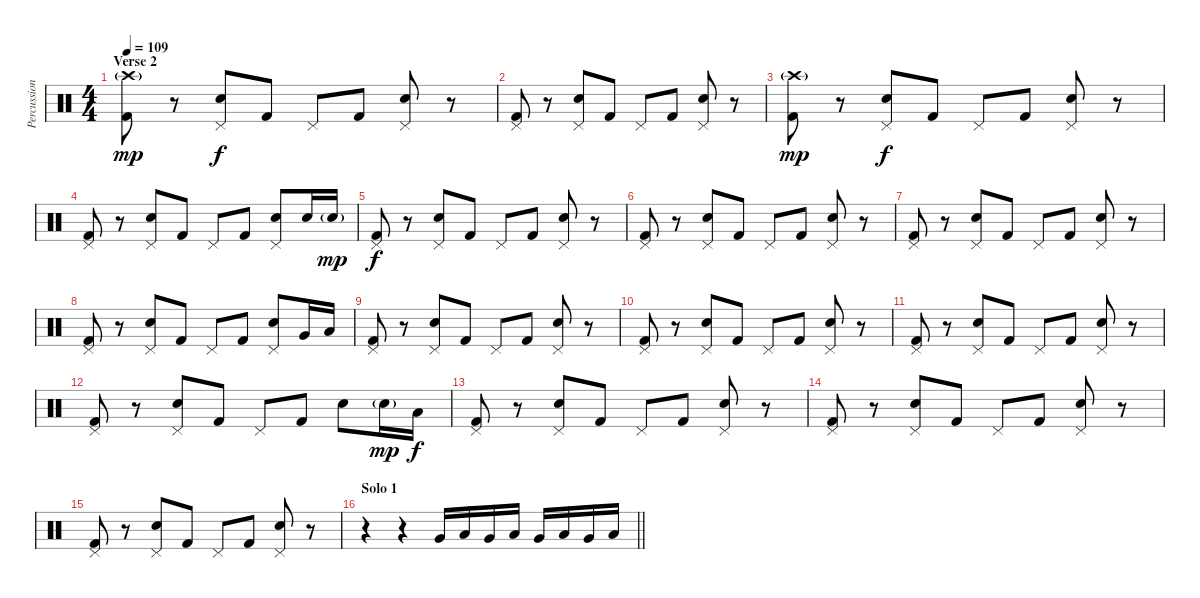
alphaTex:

\track ("Percussion" "Percussion") {instrument percussion}
\staff {score}
\articulation defaults
\ts (4 4)
\section ("" "Verse 2")
\tempo 109
\clef neutral
\ks c
("Crash high (hit)"{g} "Kick (hit) 2").8{dy mp balance 8} r.8 ("Pedal Hi-Hat (hit)" "Snare (hit) 2").8{dy f} "Kick (hit) 2".8 "Pedal Hi-Hat (hit)".8 "Kick (hit) 2".8 ("Pedal Hi-Hat (hit)" "Snare (hit) 2").8 r.8 |
("Pedal Hi-Hat (hit)" "Kick (hit) 2").8 r.8 ("Pedal Hi-Hat (hit)" "Snare (hit) 2").8 "Kick (hit) 2".8 "Pedal Hi-Hat (hit)".8 "Kick (hit) 2".8 ("Pedal Hi-Hat (hit)" "Snare (hit) 2").8 r.8 |
("Crash high (hit)"{g} "Kick (hit) 2").8{dy mp balance 8} r.8 ("Pedal Hi-Hat (hit)" "Snare (hit) 2").8{dy f} "Kick (hit) 2".8 "Pedal Hi-Hat (hit)".8 "Kick (hit) 2".8 ("Pedal Hi-Hat (hit)" "Snare (hit) 2").8 r.8 |
("Pedal Hi-Hat (hit)" "Kick (hit) 2").8 r.8 ("Pedal Hi-Hat (hit)" "Snare (hit) 2").8 "Kick (hit) 2".8 "Pedal Hi-Hat (hit)".8 "Kick (hit) 2".8 ("Pedal Hi-Hat (hit)" "Snare (hit) 2").8 "Snare (hit) 2".16 "Snare (hit) 2"{g}.16{dy mp} |
("Pedal Hi-Hat (hit)" "Kick (hit) 2").8{dy f} r.8 ("Pedal Hi-Hat (hit)" "Snare (hit) 2").8 "Kick (hit) 2".8 "Pedal Hi-Hat (hit)".8 "Kick (hit) 2".8 ("Pedal Hi-Hat (hit)" "Snare (hit) 2").8 r.8 |
("Pedal Hi-Hat (hit)" "Kick (hit) 2").8 r.8 ("Pedal Hi-Hat (hit)" "Snare (hit) 2").8 "Kick (hit) 2".8 "Pedal Hi-Hat (hit)".8 "Kick (hit) 2".8 ("Pedal Hi-Hat (hit)" "Snare (hit) 2").8 r.8 |
("Pedal Hi-Hat (hit)" "Kick (hit) 2").8 r.8 ("Pedal Hi-Hat (hit)" "Snare (hit) 2").8 "Kick (hit) 2".8 "Pedal Hi-Hat (hit)".8 "Kick (hit) 2".8 ("Pedal Hi-Hat (hit)" "Snare (hit) 2").8 r.8 |
("Pedal Hi-Hat (hit)" "Kick (hit) 2").8 r.8 ("Pedal Hi-Hat (hit)" "Snare (hit) 2").8 "Kick (hit) 2".8 "Pedal Hi-Hat (hit)".8 "Kick (hit) 2".8 ("Pedal Hi-Hat (hit)" "Snare (hit) 2").8 "Very Low Tom (hit)".16{balance 0} "Low Floor Tom (hit)".16{balance 16} |
("Pedal Hi-Hat (hit)" "Kick (hit) 2").8{balance 8} r.8 ("Pedal Hi-Hat (hit)" "Snare (hit) 2").8 "Kick (hit) 2".8 "Pedal Hi-Hat (hit)".8 "Kick (hit) 2".8 ("Pedal Hi-Hat (hit)" "Snare (hit) 2").8 r.8 |
("Pedal Hi-Hat (hit)" "Kick (hit) 2").8 r.8 ("Pedal Hi-Hat (hit)" "Snare (hit) 2").8 "Kick (hit) 2".8 "Pedal Hi-Hat (hit)".8 "Kick (hit) 2".8 ("Pedal Hi-Hat (hit)" "Snare (hit) 2").8 r.8 |
("Pedal Hi-Hat (hit)" "Kick (hit) 2").8{balance 8} r.8 ("Pedal Hi-Hat (hit)" "Snare (hit) 2").8 "Kick (hit) 2".8 "Pedal Hi-Hat (hit)".8 "Kick (hit) 2".8 ("Pedal Hi-Hat (hit)" "Snare (hit) 2").8 r.8 |
("Pedal Hi-Hat (hit)" "Kick (hit) 2").8{balance 8} r.8 ("Pedal Hi-Hat (hit)" "Snare (hit) 2").8 "Kick (hit) 2".8 "Pedal Hi-Hat (hit)".8 "Kick (hit) 2".8 "Snare (hit) 2".8 "Snare (hit) 2"{g}.16{dy mp} "Low Floor Tom (hit)".16{dy f balance 16} |
("Pedal Hi-Hat (hit)" "Kick (hit) 2").8{balance 8} r.8 ("Pedal Hi-Hat (hit)" "Snare (hit) 2").8 "Kick (hit) 2".8 "Pedal Hi-Hat (hit)".8 "Kick (hit) 2".8 ("Pedal Hi-Hat (hit)" "Snare (hit) 2").8 r.8 |
("Pedal Hi-Hat (hit)" "Kick (hit) 2").8 r.8 ("Pedal Hi-Hat (hit)" "Snare (hit) 2").8 "Kick (hit) 2".8 "Pedal Hi-Hat (hit)".8 "Kick (hit) 2".8 ("Pedal Hi-Hat (hit)" "Snare (hit) 2").8 r.8 |
("Pedal Hi-Hat (hit)" "Kick (hit) 2").8 r.8 ("Pedal Hi-Hat (hit)" "Snare (hit) 2").8 "Kick (hit) 2".8 "Pedal Hi-Hat (hit)".8 "Kick (hit) 2".8 ("Pedal Hi-Hat (hit)" "Snare (hit) 2").8 r.8 |
\section ("" "Solo 1")
\barLineRight lightlight
r.4 r.4 "Very Low Tom (hit)".16{volume 6} "Low Floor Tom (hit)".16{volume 7} "Very Low Tom (hit)".16{volume 8} "Low Floor Tom (hit)".16{volume 10} "Very Low Tom (hit)".16{volume 10} "Low Floor Tom (hit)".16 "Very Low Tom (hit)".16{volume 16} "Low Floor Tom (hit)".16
